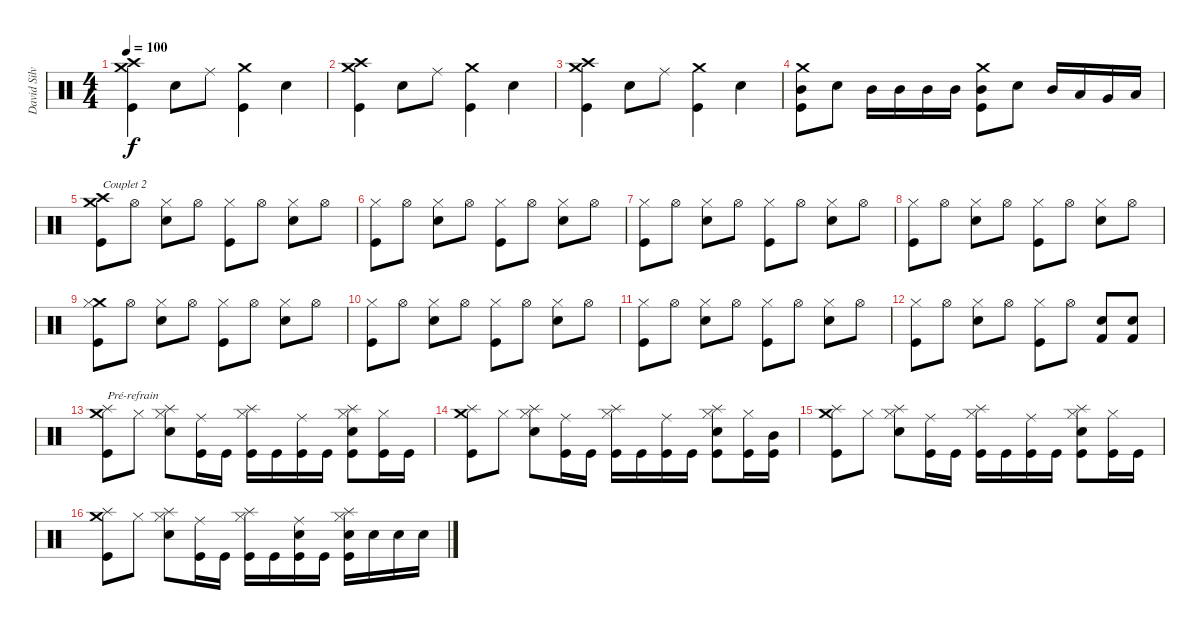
\track ("David Silviera" "David Silv") {instrument percussion}
\staff {score}
\articulation defaults
\ts (4 4)
\tempo 100
\clef neutral
\ks c
("Crash medium (hit)" "Crash high (hit)" "Kick (hit)").4{dy f} "Electric Snare (hit)".8 "Ride (middle)".8 ("Crash medium (hit)" "Kick (hit)").4 "Electric Snare (hit)".4 |
("Crash medium (hit)" "Crash high (hit)" "Kick (hit)").4 "Electric Snare (hit)".8 "Ride (middle)".8 ("Crash medium (hit)" "Kick (hit)").4 "Electric Snare (hit)".4 |
("Crash medium (hit)" "Crash high (hit)" "Kick (hit)").4 "Electric Snare (hit)".8 "Ride (middle)".8 ("Crash medium (hit)" "Kick (hit)").4 "Electric Snare (hit)".4 |
("Crash medium (hit)" "Mid Tom (hit)" "Kick (hit)").8 "Electric Snare (hit)".8 "Mid Tom (hit)".16 "Mid Tom (hit)".16 "Mid Tom (hit)".16 "Mid Tom (hit)".16 ("Crash medium (hit)" "Mid Tom (hit)" "Kick (hit)").8 "Electric Snare (hit)".8 "Mid Tom (hit)".16 "Low Tom (hit)".16 "Very Low Tom (hit)".16 "Low Floor Tom (hit)".16 |
("Crash medium (hit)" "Crash high (hit)" "Kick (hit)").8{txt "Couplet 2"} "Hi-Hat (open)".8 ("Electric Snare (hit)" "Hi-Hat (closed)").8 "Hi-Hat (open)".8 ("Hi-Hat (closed)" "Kick (hit)").8 "Hi-Hat (open)".8 ("Electric Snare (hit)" "Hi-Hat (closed)").8 "Hi-Hat (open)".8 |
("Hi-Hat (closed)" "Kick (hit)").8 "Hi-Hat (open)".8 ("Electric Snare (hit)" "Hi-Hat (closed)").8 "Hi-Hat (open)".8 ("Hi-Hat (closed)" "Kick (hit)").8 "Hi-Hat (open)".8 ("Electric Snare (hit)" "Hi-Hat (closed)").8 "Hi-Hat (open)".8 |
("Hi-Hat (closed)" "Kick (hit)").8 "Hi-Hat (open)".8 ("Electric Snare (hit)" "Hi-Hat (closed)").8 "Hi-Hat (open)".8 ("Hi-Hat (closed)" "Kick (hit)").8 "Hi-Hat (open)".8 ("Electric Snare (hit)" "Hi-Hat (closed)").8 "Hi-Hat (open)".8 |
("Hi-Hat (closed)" "Kick (hit)").8 "Hi-Hat (open)".8 ("Electric Snare (hit)" "Hi-Hat (closed)").8 "Hi-Hat (open)".8 ("Hi-Hat (closed)" "Kick (hit)").8 "Hi-Hat (open)".8 ("Electric Snare (hit)" "Hi-Hat (closed)").8 "Hi-Hat (open)".8 |
("Crash medium (hit)" "Hi-Hat (closed)" "Kick (hit)").8 "Hi-Hat (open)".8 ("Electric Snare (hit)" "Hi-Hat (closed)").8 "Hi-Hat (open)".8 ("Hi-Hat (closed)" "Kick (hit)").8 "Hi-Hat (open)".8 ("Electric Snare (hit)" "Hi-Hat (closed)").8 "Hi-Hat (open)".8 |
("Hi-Hat (closed)" "Kick (hit)").8 "Hi-Hat (open)".8 ("Electric Snare (hit)" "Hi-Hat (closed)").8 "Hi-Hat (open)".8 ("Hi-Hat (closed)" "Kick (hit)").8 "Hi-Hat (open)".8 ("Electric Snare (hit)" "Hi-Hat (closed)").8 "Hi-Hat (open)".8 |
("Hi-Hat (closed)" "Kick (hit)").8 "Hi-Hat (open)".8 ("Electric Snare (hit)" "Hi-Hat (closed)").8 "Hi-Hat (open)".8 ("Hi-Hat (closed)" "Kick (hit)").8 "Hi-Hat (open)".8 ("Electric Snare (hit)" "Hi-Hat (closed)").8 "Hi-Hat (open)".8 |
("Hi-Hat (closed)" "Kick (hit)").8 "Hi-Hat (open)".8 ("Electric Snare (hit)" "Hi-Hat (closed)").8 "Hi-Hat (open)".8 ("Hi-Hat (closed)" "Kick (hit)").8 "Hi-Hat (open)".8 ("Kick (hit) 2" "Electric Snare (hit)").8 ("Kick (hit) 2" "Electric Snare (hit)").8 |
("Crash medium (hit)" "Splash (hit)" "Kick (hit)").8{txt "Pré-refrain"} "Hi-Hat (closed)".8 ("Splash (hit)" "Electric Snare (hit)" "Hi-Hat (closed)").8 ("Ride (middle)" "Kick (hit)").16 "Kick (hit)".16 ("Splash (hit)" "Hi-Hat (closed)" "Kick (hit)").16 "Kick (hit)".16 ("Ride (middle)" "Kick (hit)").16 "Kick (hit)".16 ("Splash (hit)" "Electric Snare (hit)" "Hi-Hat (closed)" "Kick (hit)").8 ("Hi-Hat (closed)" "Kick (hit)").16 "Kick (hit)".16 |
("Crash medium (hit)" "Splash (hit)" "Kick (hit)").8 "Hi-Hat (closed)".8 ("Splash (hit)" "Electric Snare (hit)" "Hi-Hat (closed)").8 ("Ride (middle)" "Kick (hit)").16 "Kick (hit)".16 ("Splash (hit)" "Hi-Hat (closed)" "Kick (hit)").16 "Kick (hit)".16 ("Ride (middle)" "Kick (hit)").16 "Kick (hit)".16 ("Splash (hit)" "Electric Snare (hit)" "Hi-Hat (closed)" "Kick (hit)").8 ("Hi-Hat (closed)" "Kick (hit)").16 ("Mid Tom (hit)" "Kick (hit)").16 |
("Crash medium (hit)" "Splash (hit)" "Kick (hit)").8 "Hi-Hat (closed)".8 ("Splash (hit)" "Electric Snare (hit)" "Hi-Hat (closed)").8 ("Ride (middle)" "Kick (hit)").16 "Kick (hit)".16 ("Splash (hit)" "Hi-Hat (closed)" "Kick (hit)").16 "Kick (hit)".16 ("Ride (middle)" "Kick (hit)").16 "Kick (hit)".16 ("Splash (hit)" "Electric Snare (hit)" "Hi-Hat (closed)" "Kick (hit)").8 ("Hi-Hat (closed)" "Kick (hit)").16 "Kick (hit)".16 |
("Crash medium (hit)" "Splash (hit)" "Kick (hit)").8 "Hi-Hat (closed)".8 ("Splash (hit)" "Electric Snare (hit)" "Hi-Hat (closed)").8 ("Ride (middle)" "Kick (hit)").16 "Kick (hit)".16 ("Splash (hit)" "Hi-Hat (closed)" "Kick (hit)").16 "Kick (hit)".16 ("Electric Snare (hit)" "Ride (middle)" "Kick (hit)").16 "Kick (hit)".16 ("Splash (hit)" "Electric Snare (hit)" "Hi-Hat (closed)" "Kick (hit)").16 "Electric Snare (hit)".16 "Electric Snare (hit)".16 "Electric Snare (hit)".16
